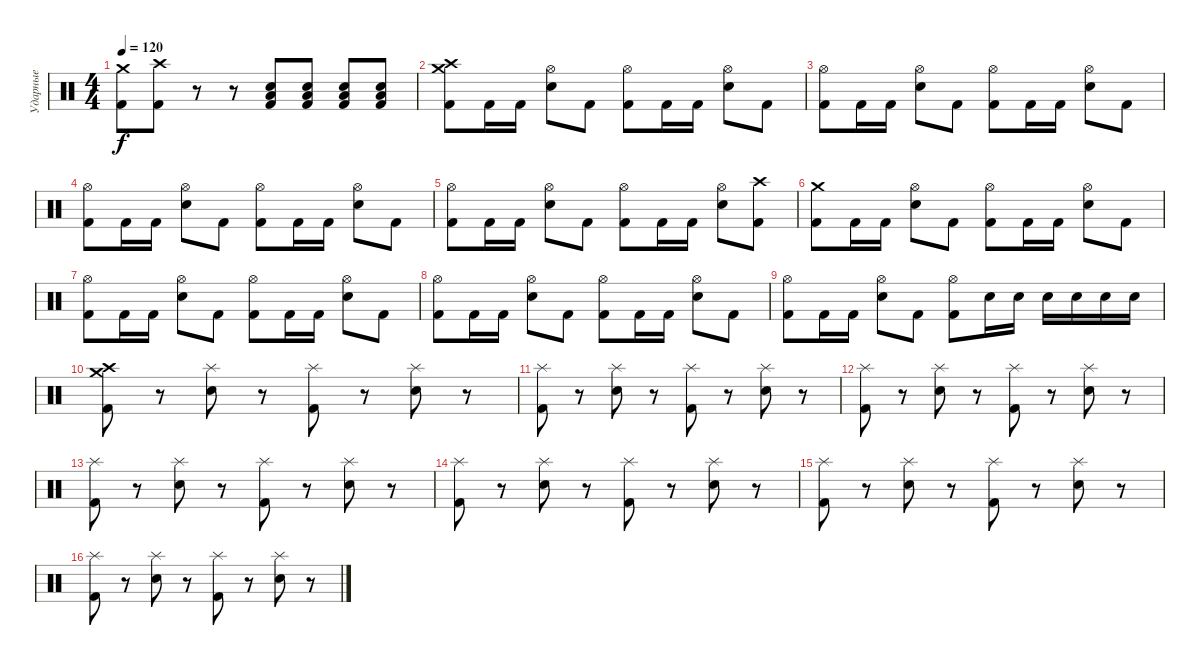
\track ("Ударные" "Ударные") {instrument percussion}
\staff {score}
\articulation defaults
\ts (4 4)
\tempo 120
\clef neutral
\ks c
("Crash medium (hit)" "Kick (hit) 2").8{dy f} ("Crash high (hit)" "Kick (hit) 2").8 r.8 r.8 ("Low Tom (hit)" "Electric Snare (hit)" "Kick (hit) 2").8 ("Low Tom (hit)" "Electric Snare (hit)" "Kick (hit) 2").8 ("Low Tom (hit)" "Electric Snare (hit)" "Kick (hit) 2").8 ("Low Tom (hit)" "Electric Snare (hit)" "Kick (hit) 2").8 |
("Crash medium (hit)" "Crash high (hit)" "Kick (hit) 2").8 "Kick (hit) 2".16 "Kick (hit) 2".16 ("Hi-Hat (open)" "Electric Snare (hit)").8 "Kick (hit) 2".8 ("Hi-Hat (open)" "Kick (hit) 2").8 "Kick (hit) 2".16 "Kick (hit) 2".16 ("Hi-Hat (open)" "Electric Snare (hit)").8 "Kick (hit) 2".8 |
("Hi-Hat (open)" "Kick (hit) 2").8 "Kick (hit) 2".16 "Kick (hit) 2".16 ("Hi-Hat (open)" "Electric Snare (hit)").8 "Kick (hit) 2".8 ("Hi-Hat (open)" "Kick (hit) 2").8 "Kick (hit) 2".16 "Kick (hit) 2".16 ("Hi-Hat (open)" "Electric Snare (hit)").8 "Kick (hit) 2".8 |
("Hi-Hat (open)" "Kick (hit) 2").8 "Kick (hit) 2".16 "Kick (hit) 2".16 ("Hi-Hat (open)" "Electric Snare (hit)").8 "Kick (hit) 2".8 ("Hi-Hat (open)" "Kick (hit) 2").8 "Kick (hit) 2".16 "Kick (hit) 2".16 ("Hi-Hat (open)" "Electric Snare (hit)").8 "Kick (hit) 2".8 |
("Hi-Hat (open)" "Kick (hit) 2").8 "Kick (hit) 2".16 "Kick (hit) 2".16 ("Hi-Hat (open)" "Electric Snare (hit)").8 "Kick (hit) 2".8 ("Hi-Hat (open)" "Kick (hit) 2").8 "Kick (hit) 2".16 "Kick (hit) 2".16 ("Hi-Hat (open)" "Electric Snare (hit)").8 ("Crash high (hit)" "Kick (hit) 2").8 |
("Crash medium (hit)" "Kick (hit) 2").8 "Kick (hit) 2".16 "Kick (hit) 2".16 ("Hi-Hat (open)" "Electric Snare (hit)").8 "Kick (hit) 2".8 ("Hi-Hat (open)" "Kick (hit) 2").8 "Kick (hit) 2".16 "Kick (hit) 2".16 ("Hi-Hat (open)" "Electric Snare (hit)").8 "Kick (hit) 2".8 |
("Hi-Hat (open)" "Kick (hit) 2").8 "Kick (hit) 2".16 "Kick (hit) 2".16 ("Hi-Hat (open)" "Electric Snare (hit)").8 "Kick (hit) 2".8 ("Hi-Hat (open)" "Kick (hit) 2").8 "Kick (hit) 2".16 "Kick (hit) 2".16 ("Hi-Hat (open)" "Electric Snare (hit)").8 "Kick (hit) 2".8 |
("Hi-Hat (open)" "Kick (hit) 2").8 "Kick (hit) 2".16 "Kick (hit) 2".16 ("Hi-Hat (open)" "Electric Snare (hit)").8 "Kick (hit) 2".8 ("Hi-Hat (open)" "Kick (hit) 2").8 "Kick (hit) 2".16 "Kick (hit) 2".16 ("Hi-Hat (open)" "Electric Snare (hit)").8 "Kick (hit) 2".8 |
("Hi-Hat (open)" "Kick (hit) 2").8 "Kick (hit) 2".16 "Kick (hit) 2".16 ("Hi-Hat (open)" "Electric Snare (hit)").8 "Kick (hit) 2".8 ("Hi-Hat (open)" "Kick (hit) 2").8 "Electric Snare (hit)".16 "Electric Snare (hit)".16 "Electric Snare (hit)".16 "Electric Snare (hit)".16 "Electric Snare (hit)".16 "Electric Snare (hit)".16 |
("Crash medium (hit)" "Crash high (hit)" "Kick (hit) 2").8 r.8 ("Splash (hit)" "Electric Snare (hit)").8 r.8 ("Splash (hit)" "Kick (hit) 2").8 r.8 ("Splash (hit)" "Electric Snare (hit)").8 r.8 |
("Splash (hit)" "Kick (hit) 2").8 r.8 ("Splash (hit)" "Electric Snare (hit)").8 r.8 ("Splash (hit)" "Kick (hit) 2").8 r.8 ("Splash (hit)" "Electric Snare (hit)").8 r.8 |
("Splash (hit)" "Kick (hit) 2").8 r.8 ("Splash (hit)" "Electric Snare (hit)").8 r.8 ("Splash (hit)" "Kick (hit) 2").8 r.8 ("Splash (hit)" "Electric Snare (hit)").8 r.8 |
("Splash (hit)" "Kick (hit) 2").8 r.8 ("Splash (hit)" "Electric Snare (hit)").8 r.8 ("Splash (hit)" "Kick (hit) 2").8 r.8 ("Splash (hit)" "Electric Snare (hit)").8 r.8 |
("Splash (hit)" "Kick (hit) 2").8 r.8 ("Splash (hit)" "Electric Snare (hit)").8 r.8 ("Splash (hit)" "Kick (hit) 2").8 r.8 ("Splash (hit)" "Electric Snare (hit)").8 r.8 |
("Splash (hit)" "Kick (hit) 2").8 r.8 ("Splash (hit)" "Electric Snare (hit)").8 r.8 ("Splash (hit)" "Kick (hit) 2").8 r.8 ("Splash (hit)" "Electric Snare (hit)").8 r.8 |
("Splash (hit)" "Kick (hit) 2").8 r.8 ("Splash (hit)" "Electric Snare (hit)").8 r.8 ("Splash (hit)" "Kick (hit) 2").8 r.8 ("Splash (hit)" "Electric Snare (hit)").8 r.8
